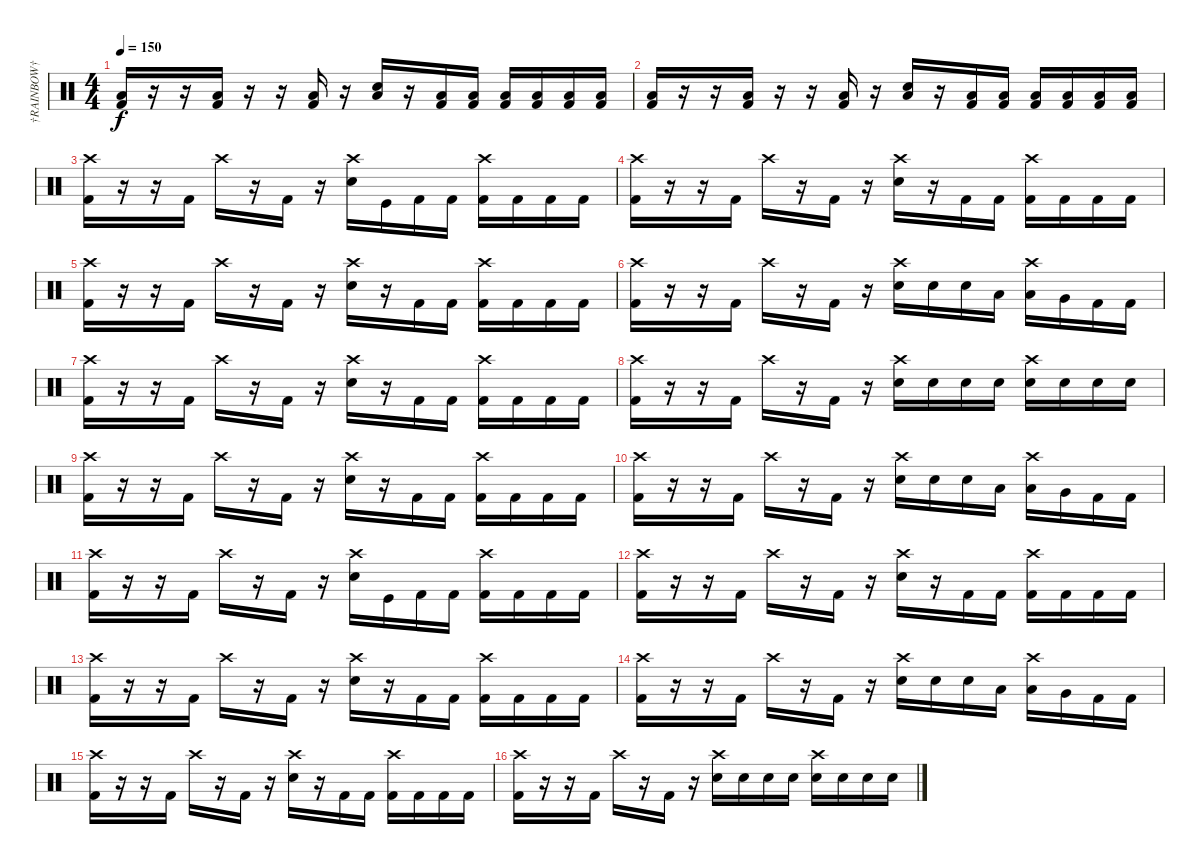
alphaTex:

\track ("†RAINBOW†" "†RAINBOW†") {instrument percussion}
\staff {score}
\articulation defaults
\ts (4 4)
\tempo 150
\clef neutral
\ks c
("Low Floor Tom (hit)" "Kick (hit) 2").16{dy f} r.16 r.16 ("Low Floor Tom (hit)" "Kick (hit) 2").16 r.16 r.16 ("Low Floor Tom (hit)" "Kick (hit) 2").16 r.16 ("Low Floor Tom (hit)" "Electric Snare (hit)").16 r.16 ("Low Floor Tom (hit)" "Kick (hit) 2").16 ("Low Floor Tom (hit)" "Kick (hit) 2").16 ("Low Floor Tom (hit)" "Kick (hit) 2").16 ("Low Floor Tom (hit)" "Kick (hit) 2").16 ("Low Floor Tom (hit)" "Kick (hit) 2").16 ("Low Floor Tom (hit)" "Kick (hit) 2").16 |
("Low Floor Tom (hit)" "Kick (hit) 2").16 r.16 r.16 ("Low Floor Tom (hit)" "Kick (hit) 2").16 r.16 r.16 ("Low Floor Tom (hit)" "Kick (hit) 2").16 r.16 ("Low Floor Tom (hit)" "Electric Snare (hit)").16 r.16 ("Low Floor Tom (hit)" "Kick (hit) 2").16 ("Low Floor Tom (hit)" "Kick (hit) 2").16 ("Low Floor Tom (hit)" "Kick (hit) 2").16 ("Low Floor Tom (hit)" "Kick (hit) 2").16 ("Low Floor Tom (hit)" "Kick (hit) 2").16 ("Low Floor Tom (hit)" "Kick (hit) 2").16 |
("Crash high (hit)" "Kick (hit) 2").16 r.16 r.16 "Kick (hit) 2".16 "Crash high (hit)".16 r.16 "Kick (hit) 2".16 r.16 ("Crash high (hit)" "Electric Snare (hit)").16 "Kick (hit)".16 "Kick (hit) 2".16 "Kick (hit) 2".16 ("Crash high (hit)" "Kick (hit) 2").16 "Kick (hit) 2".16 "Kick (hit) 2".16 "Kick (hit) 2".16 |
("Crash high (hit)" "Kick (hit) 2").16 r.16 r.16 "Kick (hit) 2".16 "Crash high (hit)".16 r.16 "Kick (hit) 2".16 r.16 ("Crash high (hit)" "Electric Snare (hit)").16 r.16 "Kick (hit) 2".16 "Kick (hit) 2".16 ("Crash high (hit)" "Kick (hit) 2").16 "Kick (hit) 2".16 "Kick (hit) 2".16 "Kick (hit) 2".16 |
("Crash high (hit)" "Kick (hit) 2").16 r.16 r.16 "Kick (hit) 2".16 "Crash high (hit)".16 r.16 "Kick (hit) 2".16 r.16 ("Crash high (hit)" "Electric Snare (hit)").16 r.16 "Kick (hit) 2".16 "Kick (hit) 2".16 ("Crash high (hit)" "Kick (hit) 2").16 "Kick (hit) 2".16 "Kick (hit) 2".16 "Kick (hit) 2".16 |
("Crash high (hit)" "Kick (hit) 2").16 r.16 r.16 "Kick (hit) 2".16 "Crash high (hit)".16 r.16 "Kick (hit) 2".16 r.16 ("Crash high (hit)" "Electric Snare (hit)").16 "Electric Snare (hit)".16 "Electric Snare (hit)".16 "Low Tom (hit)".16 ("Crash high (hit)" "Low Tom (hit)").16 "Very Low Tom (hit)".16 "Kick (hit) 2".16 "Kick (hit) 2".16 |
("Crash high (hit)" "Kick (hit) 2").16 r.16 r.16 "Kick (hit) 2".16 "Crash high (hit)".16 r.16 "Kick (hit) 2".16 r.16 ("Crash high (hit)" "Electric Snare (hit)").16 r.16 "Kick (hit) 2".16 "Kick (hit) 2".16 ("Crash high (hit)" "Kick (hit) 2").16 "Kick (hit) 2".16 "Kick (hit) 2".16 "Kick (hit) 2".16 |
("Crash high (hit)" "Kick (hit) 2").16 r.16 r.16 "Kick (hit) 2".16 "Crash high (hit)".16 r.16 "Kick (hit) 2".16 r.16 ("Crash high (hit)" "Electric Snare (hit)").16 "Electric Snare (hit)".16 "Electric Snare (hit)".16 "Electric Snare (hit)".16 ("Crash high (hit)" "Electric Snare (hit)").16 "Electric Snare (hit)".16 "Electric Snare (hit)".16 "Electric Snare (hit)".16 |
("Crash high (hit)" "Kick (hit) 2").16 r.16 r.16 "Kick (hit) 2".16 "Crash high (hit)".16 r.16 "Kick (hit) 2".16 r.16 ("Crash high (hit)" "Electric Snare (hit)").16 r.16 "Kick (hit) 2".16 "Kick (hit) 2".16 ("Crash high (hit)" "Kick (hit) 2").16 "Kick (hit) 2".16 "Kick (hit) 2".16 "Kick (hit) 2".16 |
("Crash high (hit)" "Kick (hit) 2").16 r.16 r.16 "Kick (hit) 2".16 "Crash high (hit)".16 r.16 "Kick (hit) 2".16 r.16 ("Crash high (hit)" "Electric Snare (hit)").16 "Electric Snare (hit)".16 "Electric Snare (hit)".16 "Low Tom (hit)".16 ("Crash high (hit)" "Low Tom (hit)").16 "Very Low Tom (hit)".16 "Kick (hit) 2".16 "Kick (hit) 2".16 |
("Crash high (hit)" "Kick (hit) 2").16 r.16 r.16 "Kick (hit) 2".16 "Crash high (hit)".16 r.16 "Kick (hit) 2".16 r.16 ("Crash high (hit)" "Electric Snare (hit)").16 "Kick (hit)".16 "Kick (hit) 2".16 "Kick (hit) 2".16 ("Crash high (hit)" "Kick (hit) 2").16 "Kick (hit) 2".16 "Kick (hit) 2".16 "Kick (hit) 2".16 |
("Crash high (hit)" "Kick (hit) 2").16 r.16 r.16 "Kick (hit) 2".16 "Crash high (hit)".16 r.16 "Kick (hit) 2".16 r.16 ("Crash high (hit)" "Electric Snare (hit)").16 r.16 "Kick (hit) 2".16 "Kick (hit) 2".16 ("Crash high (hit)" "Kick (hit) 2").16 "Kick (hit) 2".16 "Kick (hit) 2".16 "Kick (hit) 2".16 |
("Crash high (hit)" "Kick (hit) 2").16 r.16 r.16 "Kick (hit) 2".16 "Crash high (hit)".16 r.16 "Kick (hit) 2".16 r.16 ("Crash high (hit)" "Electric Snare (hit)").16 r.16 "Kick (hit) 2".16 "Kick (hit) 2".16 ("Crash high (hit)" "Kick (hit) 2").16 "Kick (hit) 2".16 "Kick (hit) 2".16 "Kick (hit) 2".16 |
("Crash high (hit)" "Kick (hit) 2").16 r.16 r.16 "Kick (hit) 2".16 "Crash high (hit)".16 r.16 "Kick (hit) 2".16 r.16 ("Crash high (hit)" "Electric Snare (hit)").16 "Electric Snare (hit)".16 "Electric Snare (hit)".16 "Low Tom (hit)".16 ("Crash high (hit)" "Low Tom (hit)").16 "Very Low Tom (hit)".16 "Kick (hit) 2".16 "Kick (hit) 2".16 |
("Crash high (hit)" "Kick (hit) 2").16 r.16 r.16 "Kick (hit) 2".16 "Crash high (hit)".16 r.16 "Kick (hit) 2".16 r.16 ("Crash high (hit)" "Electric Snare (hit)").16 r.16 "Kick (hit) 2".16 "Kick (hit) 2".16 ("Crash high (hit)" "Kick (hit) 2").16 "Kick (hit) 2".16 "Kick (hit) 2".16 "Kick (hit) 2".16 |
("Crash high (hit)" "Kick (hit) 2").16 r.16 r.16 "Kick (hit) 2".16 "Crash high (hit)".16 r.16 "Kick (hit) 2".16 r.16 ("Crash high (hit)" "Electric Snare (hit)").16 "Electric Snare (hit)".16 "Electric Snare (hit)".16 "Electric Snare (hit)".16 ("Crash high (hit)" "Electric Snare (hit)").16 "Electric Snare (hit)".16 "Electric Snare (hit)".16 "Electric Snare (hit)".16
